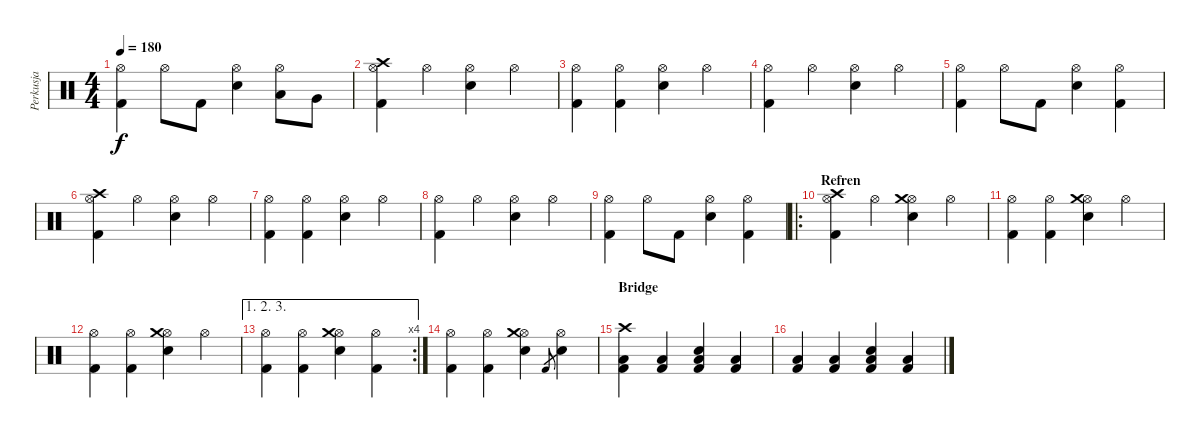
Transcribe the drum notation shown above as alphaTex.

\track ("Perkusja" "Perkusja") {instrument percussion}
\staff {score}
\articulation defaults
\ts (4 4)
\tempo 180
\clef neutral
\ks c
("Hi-Hat (open)" "Kick (hit) 2").4{dy f} "Hi-Hat (open)".8 "Kick (hit) 2".8 ("Hi-Hat (open)" "Snare (hit) 2").4 ("Hi-Hat (open)" "Low Tom (hit)").8 "Very Low Tom (hit)".8 |
("Hi-Hat (open)" "Kick (hit) 2" "Crash high (hit)").4 "Hi-Hat (open)".4 ("Hi-Hat (open)" "Snare (hit) 2").4 "Hi-Hat (open)".4 |
("Hi-Hat (open)" "Kick (hit) 2").4 ("Hi-Hat (open)" "Kick (hit) 2").4 ("Hi-Hat (open)" "Snare (hit) 2").4 "Hi-Hat (open)".4 |
("Hi-Hat (open)" "Kick (hit) 2").4 "Hi-Hat (open)".4 ("Hi-Hat (open)" "Snare (hit) 2").4 "Hi-Hat (open)".4 |
("Hi-Hat (open)" "Kick (hit) 2").4 "Hi-Hat (open)".8 "Kick (hit) 2".8 ("Hi-Hat (open)" "Snare (hit) 2").4 ("Hi-Hat (open)" "Kick (hit) 2").4 |
("Hi-Hat (open)" "Kick (hit) 2" "Crash high (hit)").4 "Hi-Hat (open)".4 ("Hi-Hat (open)" "Snare (hit) 2").4 "Hi-Hat (open)".4 |
("Hi-Hat (open)" "Kick (hit) 2").4 ("Hi-Hat (open)" "Kick (hit) 2").4 ("Hi-Hat (open)" "Snare (hit) 2").4 "Hi-Hat (open)".4 |
("Hi-Hat (open)" "Kick (hit) 2").4 "Hi-Hat (open)".4 ("Hi-Hat (open)" "Snare (hit) 2").4 "Hi-Hat (open)".4 |
("Hi-Hat (open)" "Kick (hit) 2").4 "Hi-Hat (open)".8 "Kick (hit) 2".8 ("Hi-Hat (open)" "Snare (hit) 2").4 ("Hi-Hat (open)" "Kick (hit) 2").4 |
\ro
\section ("" "Refren")
("Hi-Hat (open)" "Kick (hit) 2" "Crash high (hit)").4 "Hi-Hat (open)".4 ("Hi-Hat (open)" "Snare (hit) 2" "Crash medium (hit)").4 "Hi-Hat (open)".4 |
("Hi-Hat (open)" "Kick (hit) 2").4 ("Hi-Hat (open)" "Kick (hit) 2").4 ("Hi-Hat (open)" "Snare (hit) 2" "Crash medium (hit)").4 "Hi-Hat (open)".4 |
("Hi-Hat (open)" "Kick (hit) 2").4 ("Hi-Hat (open)" "Kick (hit) 2").4 ("Hi-Hat (open)" "Snare (hit) 2" "Crash medium (hit)").4 "Hi-Hat (open)".4 |
\ae (1 2 3)
\rc 4
("Hi-Hat (open)" "Kick (hit) 2").4 ("Hi-Hat (open)" "Kick (hit) 2").4 ("Hi-Hat (open)" "Snare (hit) 2" "Crash medium (hit)").4 ("Hi-Hat (open)" "Kick (hit) 2").4 |
("Hi-Hat (open)" "Kick (hit) 2").4 ("Hi-Hat (open)" "Kick (hit) 2").4 ("Hi-Hat (open)" "Snare (hit) 2" "Crash medium (hit)").4 "Kick (hit) 2".8{gr} ("Hi-Hat (open)" "Snare (hit) 2").4 |
\section ("" "Bridge")
("Kick (hit) 2" "Low Tom (hit)" "Crash high (hit)").4 ("Kick (hit) 2" "Low Tom (hit)").4 ("Kick (hit) 2" "Low Tom (hit)" "Snare (hit) 2").4 ("Kick (hit) 2" "Low Tom (hit)").4 |
("Kick (hit) 2" "Low Tom (hit)").4 ("Kick (hit) 2" "Low Tom (hit)").4 ("Kick (hit) 2" "Low Tom (hit)" "Snare (hit) 2").4 ("Kick (hit) 2" "Low Tom (hit)").4
